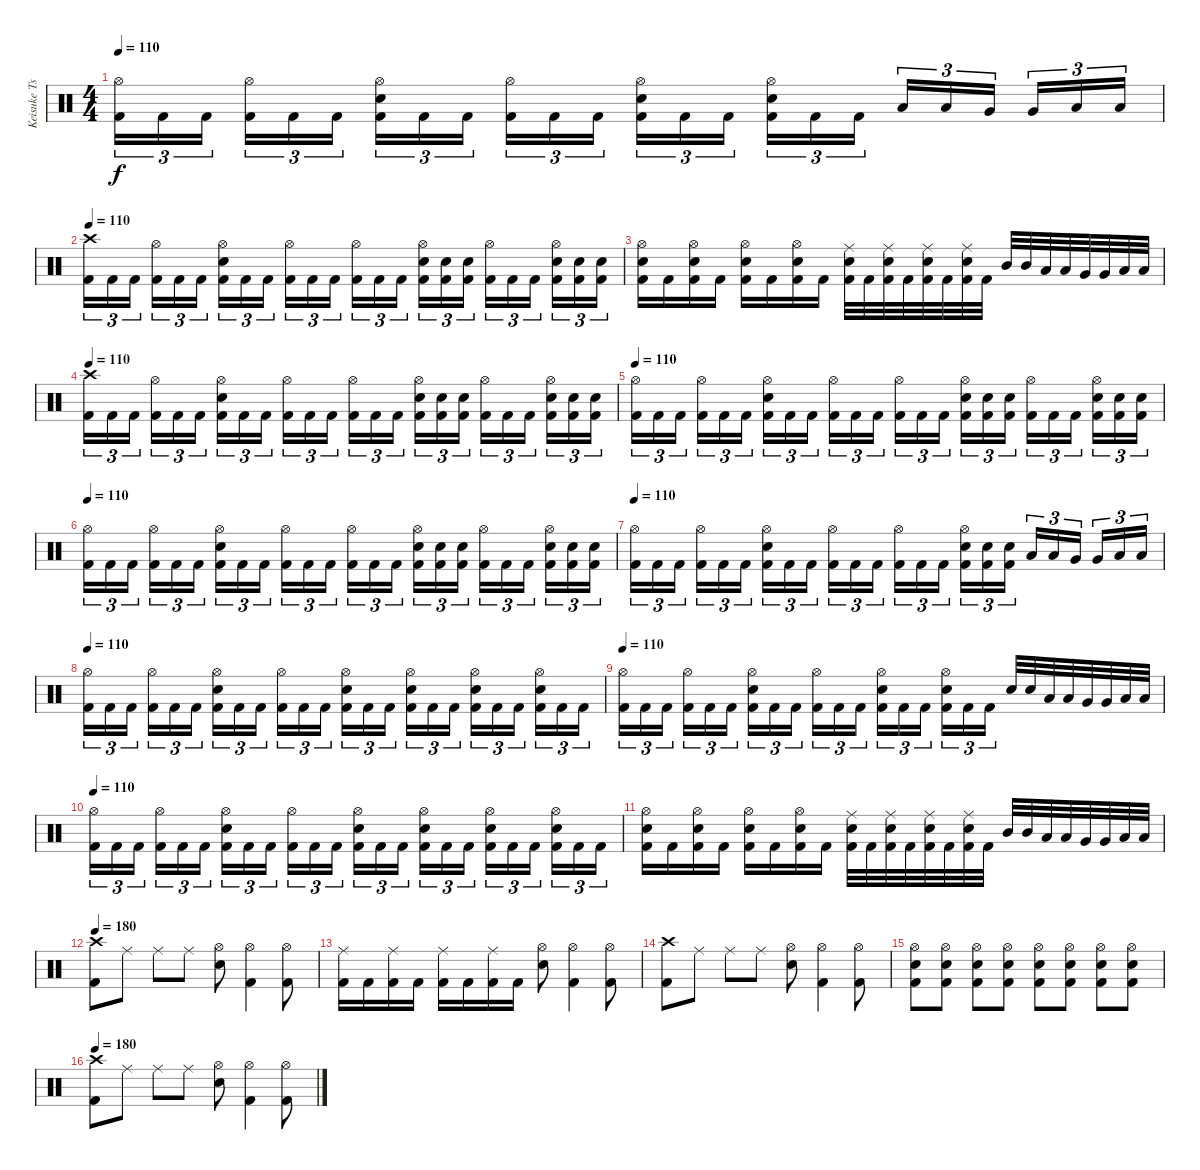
\track ("Keisuke Tsuboi" "Keisuke Ts") {instrument percussion}
\staff {score}
\articulation defaults
\ts (4 4)
\tempo 110
\clef neutral
\ks c
("Hi-Hat (open)" "Kick (hit) 2").16{tu (3 2) dy f volume 15} "Kick (hit) 2".16{tu (3 2)} "Kick (hit) 2".16{tu (3 2)} ("Hi-Hat (open)" "Kick (hit) 2").16{tu (3 2)} "Kick (hit) 2".16{tu (3 2)} "Kick (hit) 2".16{tu (3 2)} ("Hi-Hat (open)" "Electric Snare (hit)" "Kick (hit) 2").16{tu (3 2)} "Kick (hit) 2".16{tu (3 2)} "Kick (hit) 2".16{tu (3 2)} ("Hi-Hat (open)" "Kick (hit) 2").16{tu (3 2)} "Kick (hit) 2".16{tu (3 2)} "Kick (hit) 2".16{tu (3 2)} ("Hi-Hat (open)" "Electric Snare (hit)" "Kick (hit) 2").16{tu (3 2)} "Kick (hit) 2".16{tu (3 2)} "Kick (hit) 2".16{tu (3 2)} ("Hi-Hat (open)" "Electric Snare (hit)" "Kick (hit) 2").16{tu (3 2)} "Kick (hit) 2".16{tu (3 2)} "Kick (hit) 2".16{tu (3 2)} "Low Tom (hit)".16{tu (3 2)} "Low Tom (hit)".16{tu (3 2)} "Very Low Tom (hit)".16{tu (3 2)} "Very Low Tom (hit)".16{tu (3 2)} "Low Floor Tom (hit)".16{tu (3 2)} "Low Floor Tom (hit)".16{tu (3 2)} |
\tempo 110
("Crash high (hit)" "Kick (hit) 2").16{tu (3 2) volume 15} "Kick (hit) 2".16{tu (3 2)} "Kick (hit) 2".16{tu (3 2)} ("Hi-Hat (open)" "Kick (hit) 2").16{tu (3 2)} "Kick (hit) 2".16{tu (3 2)} "Kick (hit) 2".16{tu (3 2)} ("Hi-Hat (open)" "Electric Snare (hit)" "Kick (hit) 2").16{tu (3 2)} "Kick (hit) 2".16{tu (3 2)} "Kick (hit) 2".16{tu (3 2)} ("Hi-Hat (open)" "Kick (hit) 2").16{tu (3 2)} "Kick (hit) 2".16{tu (3 2)} "Kick (hit) 2".16{tu (3 2)} ("Hi-Hat (open)" "Kick (hit) 2").16{tu (3 2)} "Kick (hit) 2".16{tu (3 2)} "Kick (hit) 2".16{tu (3 2)} ("Hi-Hat (open)" "Electric Snare (hit)" "Kick (hit) 2").16{tu (3 2)} ("Electric Snare (hit)" "Kick (hit) 2").16{tu (3 2)} ("Electric Snare (hit)" "Kick (hit) 2").16{tu (3 2)} ("Hi-Hat (open)" "Kick (hit) 2").16{tu (3 2)} "Kick (hit) 2".16{tu (3 2)} "Kick (hit) 2".16{tu (3 2)} ("Hi-Hat (open)" "Electric Snare (hit)" "Kick (hit) 2").16{tu (3 2)} ("Electric Snare (hit)" "Kick (hit) 2").16{tu (3 2)} ("Electric Snare (hit)" "Kick (hit) 2").16{tu (3 2)} |
("Hi-Hat (open)" "Electric Snare (hit)" "Kick (hit) 2").16 "Kick (hit) 2".16 ("Hi-Hat (open)" "Electric Snare (hit)" "Kick (hit) 2").16 "Kick (hit) 2".16 ("Hi-Hat (open)" "Electric Snare (hit)" "Kick (hit) 2").16 "Kick (hit) 2".16 ("Hi-Hat (open)" "Electric Snare (hit)" "Kick (hit) 2").16 "Kick (hit) 2".16 ("Ride (middle)" "Electric Snare (hit)" "Kick (hit) 2").32 "Kick (hit) 2".32 ("Ride (middle)" "Electric Snare (hit)" "Kick (hit) 2").32 "Kick (hit) 2".32 ("Ride (middle)" "Electric Snare (hit)" "Kick (hit) 2").32 "Kick (hit) 2".32 ("Ride (middle)" "Electric Snare (hit)" "Kick (hit) 2").32 "Kick (hit) 2".32 "Mid Tom (hit)".32 "Mid Tom (hit)".32 "Low Tom (hit)".32 "Low Tom (hit)".32 "Very Low Tom (hit)".32 "Very Low Tom (hit)".32 "Low Floor Tom (hit)".32 "Low Floor Tom (hit)".32 |
\tempo 110
("Crash high (hit)" "Kick (hit) 2").16{tu (3 2) volume 15} "Kick (hit) 2".16{tu (3 2)} "Kick (hit) 2".16{tu (3 2)} ("Hi-Hat (open)" "Kick (hit) 2").16{tu (3 2)} "Kick (hit) 2".16{tu (3 2)} "Kick (hit) 2".16{tu (3 2)} ("Hi-Hat (open)" "Electric Snare (hit)" "Kick (hit) 2").16{tu (3 2)} "Kick (hit) 2".16{tu (3 2)} "Kick (hit) 2".16{tu (3 2)} ("Hi-Hat (open)" "Kick (hit) 2").16{tu (3 2)} "Kick (hit) 2".16{tu (3 2)} "Kick (hit) 2".16{tu (3 2)} ("Hi-Hat (open)" "Kick (hit) 2").16{tu (3 2)} "Kick (hit) 2".16{tu (3 2)} "Kick (hit) 2".16{tu (3 2)} ("Hi-Hat (open)" "Electric Snare (hit)" "Kick (hit) 2").16{tu (3 2)} ("Electric Snare (hit)" "Kick (hit) 2").16{tu (3 2)} ("Electric Snare (hit)" "Kick (hit) 2").16{tu (3 2)} ("Hi-Hat (open)" "Kick (hit) 2").16{tu (3 2)} "Kick (hit) 2".16{tu (3 2)} "Kick (hit) 2".16{tu (3 2)} ("Hi-Hat (open)" "Electric Snare (hit)" "Kick (hit) 2").16{tu (3 2)} ("Electric Snare (hit)" "Kick (hit) 2").16{tu (3 2)} ("Electric Snare (hit)" "Kick (hit) 2").16{tu (3 2)} |
\tempo 110
("Hi-Hat (open)" "Kick (hit) 2").16{tu (3 2) volume 15} "Kick (hit) 2".16{tu (3 2)} "Kick (hit) 2".16{tu (3 2)} ("Hi-Hat (open)" "Kick (hit) 2").16{tu (3 2)} "Kick (hit) 2".16{tu (3 2)} "Kick (hit) 2".16{tu (3 2)} ("Hi-Hat (open)" "Electric Snare (hit)" "Kick (hit) 2").16{tu (3 2)} "Kick (hit) 2".16{tu (3 2)} "Kick (hit) 2".16{tu (3 2)} ("Hi-Hat (open)" "Kick (hit) 2").16{tu (3 2)} "Kick (hit) 2".16{tu (3 2)} "Kick (hit) 2".16{tu (3 2)} ("Hi-Hat (open)" "Kick (hit) 2").16{tu (3 2)} "Kick (hit) 2".16{tu (3 2)} "Kick (hit) 2".16{tu (3 2)} ("Hi-Hat (open)" "Electric Snare (hit)" "Kick (hit) 2").16{tu (3 2)} ("Electric Snare (hit)" "Kick (hit) 2").16{tu (3 2)} ("Electric Snare (hit)" "Kick (hit) 2").16{tu (3 2)} ("Hi-Hat (open)" "Kick (hit) 2").16{tu (3 2)} "Kick (hit) 2".16{tu (3 2)} "Kick (hit) 2".16{tu (3 2)} ("Hi-Hat (open)" "Electric Snare (hit)" "Kick (hit) 2").16{tu (3 2)} ("Electric Snare (hit)" "Kick (hit) 2").16{tu (3 2)} ("Electric Snare (hit)" "Kick (hit) 2").16{tu (3 2)} |
\tempo 110
("Hi-Hat (open)" "Kick (hit) 2").16{tu (3 2) volume 15} "Kick (hit) 2".16{tu (3 2)} "Kick (hit) 2".16{tu (3 2)} ("Hi-Hat (open)" "Kick (hit) 2").16{tu (3 2)} "Kick (hit) 2".16{tu (3 2)} "Kick (hit) 2".16{tu (3 2)} ("Hi-Hat (open)" "Electric Snare (hit)" "Kick (hit) 2").16{tu (3 2)} "Kick (hit) 2".16{tu (3 2)} "Kick (hit) 2".16{tu (3 2)} ("Hi-Hat (open)" "Kick (hit) 2").16{tu (3 2)} "Kick (hit) 2".16{tu (3 2)} "Kick (hit) 2".16{tu (3 2)} ("Hi-Hat (open)" "Kick (hit) 2").16{tu (3 2)} "Kick (hit) 2".16{tu (3 2)} "Kick (hit) 2".16{tu (3 2)} ("Hi-Hat (open)" "Electric Snare (hit)" "Kick (hit) 2").16{tu (3 2)} ("Electric Snare (hit)" "Kick (hit) 2").16{tu (3 2)} ("Electric Snare (hit)" "Kick (hit) 2").16{tu (3 2)} ("Hi-Hat (open)" "Kick (hit) 2").16{tu (3 2)} "Kick (hit) 2".16{tu (3 2)} "Kick (hit) 2".16{tu (3 2)} ("Hi-Hat (open)" "Electric Snare (hit)" "Kick (hit) 2").16{tu (3 2)} ("Electric Snare (hit)" "Kick (hit) 2").16{tu (3 2)} ("Electric Snare (hit)" "Kick (hit) 2").16{tu (3 2)} |
\tempo 110
("Hi-Hat (open)" "Kick (hit) 2").16{tu (3 2) volume 15} "Kick (hit) 2".16{tu (3 2)} "Kick (hit) 2".16{tu (3 2)} ("Hi-Hat (open)" "Kick (hit) 2").16{tu (3 2)} "Kick (hit) 2".16{tu (3 2)} "Kick (hit) 2".16{tu (3 2)} ("Hi-Hat (open)" "Electric Snare (hit)" "Kick (hit) 2").16{tu (3 2)} "Kick (hit) 2".16{tu (3 2)} "Kick (hit) 2".16{tu (3 2)} ("Hi-Hat (open)" "Kick (hit) 2").16{tu (3 2)} "Kick (hit) 2".16{tu (3 2)} "Kick (hit) 2".16{tu (3 2)} ("Hi-Hat (open)" "Kick (hit) 2").16{tu (3 2)} "Kick (hit) 2".16{tu (3 2)} "Kick (hit) 2".16{tu (3 2)} ("Hi-Hat (open)" "Electric Snare (hit)" "Kick (hit) 2").16{tu (3 2)} ("Electric Snare (hit)" "Kick (hit) 2").16{tu (3 2)} ("Electric Snare (hit)" "Kick (hit) 2").16{tu (3 2)} "Low Tom (hit)".16{tu (3 2)} "Low Tom (hit)".16{tu (3 2)} "Very Low Tom (hit)".16{tu (3 2)} "Very Low Tom (hit)".16{tu (3 2)} "Low Floor Tom (hit)".16{tu (3 2)} "Low Floor Tom (hit)".16{tu (3 2)} |
\tempo 110
("Hi-Hat (open)" "Kick (hit) 2").16{tu (3 2) volume 15} "Kick (hit) 2".16{tu (3 2)} "Kick (hit) 2".16{tu (3 2)} ("Hi-Hat (open)" "Kick (hit) 2").16{tu (3 2)} "Kick (hit) 2".16{tu (3 2)} "Kick (hit) 2".16{tu (3 2)} ("Hi-Hat (open)" "Electric Snare (hit)" "Kick (hit) 2").16{tu (3 2)} "Kick (hit) 2".16{tu (3 2)} "Kick (hit) 2".16{tu (3 2)} ("Hi-Hat (open)" "Kick (hit) 2").16{tu (3 2)} "Kick (hit) 2".16{tu (3 2)} "Kick (hit) 2".16{tu (3 2)} ("Hi-Hat (open)" "Electric Snare (hit)" "Kick (hit) 2").16{tu (3 2)} "Kick (hit) 2".16{tu (3 2)} "Kick (hit) 2".16{tu (3 2)} ("Hi-Hat (open)" "Electric Snare (hit)" "Kick (hit) 2").16{tu (3 2)} "Kick (hit) 2".16{tu (3 2)} "Kick (hit) 2".16{tu (3 2)} ("Hi-Hat (open)" "Electric Snare (hit)" "Kick (hit) 2").16{tu (3 2)} "Kick (hit) 2".16{tu (3 2)} "Kick (hit) 2".16{tu (3 2)} ("Hi-Hat (open)" "Electric Snare (hit)" "Kick (hit) 2").16{tu (3 2)} "Kick (hit) 2".16{tu (3 2)} "Kick (hit) 2".16{tu (3 2)} |
\tempo 110
("Hi-Hat (open)" "Kick (hit) 2").16{tu (3 2) volume 15} "Kick (hit) 2".16{tu (3 2)} "Kick (hit) 2".16{tu (3 2)} ("Hi-Hat (open)" "Kick (hit) 2").16{tu (3 2)} "Kick (hit) 2".16{tu (3 2)} "Kick (hit) 2".16{tu (3 2)} ("Hi-Hat (open)" "Electric Snare (hit)" "Kick (hit) 2").16{tu (3 2)} "Kick (hit) 2".16{tu (3 2)} "Kick (hit) 2".16{tu (3 2)} ("Hi-Hat (open)" "Kick (hit) 2").16{tu (3 2)} "Kick (hit) 2".16{tu (3 2)} "Kick (hit) 2".16{tu (3 2)} ("Hi-Hat (open)" "Electric Snare (hit)" "Kick (hit) 2").16{tu (3 2)} "Kick (hit) 2".16{tu (3 2)} "Kick (hit) 2".16{tu (3 2)} ("Hi-Hat (open)" "Electric Snare (hit)" "Kick (hit) 2").16{tu (3 2)} "Kick (hit) 2".16{tu (3 2)} "Kick (hit) 2".16{tu (3 2)} "Electric Snare (hit)".32 "Electric Snare (hit)".32 "Low Tom (hit)".32 "Low Tom (hit)".32 "Very Low Tom (hit)".32 "Very Low Tom (hit)".32 "Low Floor Tom (hit)".32 "Low Floor Tom (hit)".32 |
\tempo 110
("Hi-Hat (open)" "Kick (hit) 2").16{tu (3 2) volume 15} "Kick (hit) 2".16{tu (3 2)} "Kick (hit) 2".16{tu (3 2)} ("Hi-Hat (open)" "Kick (hit) 2").16{tu (3 2)} "Kick (hit) 2".16{tu (3 2)} "Kick (hit) 2".16{tu (3 2)} ("Hi-Hat (open)" "Electric Snare (hit)" "Kick (hit) 2").16{tu (3 2)} "Kick (hit) 2".16{tu (3 2)} "Kick (hit) 2".16{tu (3 2)} ("Hi-Hat (open)" "Kick (hit) 2").16{tu (3 2)} "Kick (hit) 2".16{tu (3 2)} "Kick (hit) 2".16{tu (3 2)} ("Hi-Hat (open)" "Electric Snare (hit)" "Kick (hit) 2").16{tu (3 2)} "Kick (hit) 2".16{tu (3 2)} "Kick (hit) 2".16{tu (3 2)} ("Hi-Hat (open)" "Electric Snare (hit)" "Kick (hit) 2").16{tu (3 2)} "Kick (hit) 2".16{tu (3 2)} "Kick (hit) 2".16{tu (3 2)} ("Hi-Hat (open)" "Electric Snare (hit)" "Kick (hit) 2").16{tu (3 2)} "Kick (hit) 2".16{tu (3 2)} "Kick (hit) 2".16{tu (3 2)} ("Hi-Hat (open)" "Electric Snare (hit)" "Kick (hit) 2").16{tu (3 2)} "Kick (hit) 2".16{tu (3 2)} "Kick (hit) 2".16{tu (3 2)} |
("Hi-Hat (open)" "Electric Snare (hit)" "Kick (hit) 2").16 "Kick (hit) 2".16 ("Hi-Hat (open)" "Electric Snare (hit)" "Kick (hit) 2").16 "Kick (hit) 2".16 ("Hi-Hat (open)" "Electric Snare (hit)" "Kick (hit) 2").16 "Kick (hit) 2".16 ("Hi-Hat (open)" "Electric Snare (hit)" "Kick (hit) 2").16 "Kick (hit) 2".16 ("Ride (middle)" "Electric Snare (hit)" "Kick (hit) 2").32 "Kick (hit) 2".32 ("Ride (middle)" "Electric Snare (hit)" "Kick (hit) 2").32 "Kick (hit) 2".32 ("Ride (middle)" "Electric Snare (hit)" "Kick (hit) 2").32 "Kick (hit) 2".32 ("Ride (middle)" "Electric Snare (hit)" "Kick (hit) 2").32 "Kick (hit) 2".32 "Mid Tom (hit)".32 "Mid Tom (hit)".32 "Low Tom (hit)".32 "Low Tom (hit)".32 "Very Low Tom (hit)".32 "Very Low Tom (hit)".32 "Low Floor Tom (hit)".32 "Low Floor Tom (hit)".32 |
\tempo 180
("Crash high (hit)" "Kick (hit) 2").8{volume 15} "Ride (middle)".8 "Ride (middle)".8 "Ride (middle)".8 ("Hi-Hat (open)" "Electric Snare (hit)").8 ("Hi-Hat (open)" "Kick (hit) 2").4 ("Hi-Hat (open)" "Kick (hit) 2").8 |
("Ride (middle)" "Kick (hit) 2").16 "Kick (hit) 2".16 ("Ride (middle)" "Kick (hit) 2").16 "Kick (hit) 2".16 ("Ride (middle)" "Kick (hit) 2").16 "Kick (hit) 2".16 ("Ride (middle)" "Kick (hit) 2").16 "Kick (hit) 2".16 ("Hi-Hat (open)" "Electric Snare (hit)").8 ("Hi-Hat (open)" "Kick (hit) 2").4 ("Hi-Hat (open)" "Kick (hit) 2").8 |
("Crash high (hit)" "Kick (hit) 2").8 "Ride (middle)".8 "Ride (middle)".8 "Ride (middle)".8 ("Hi-Hat (open)" "Electric Snare (hit)").8 ("Hi-Hat (open)" "Kick (hit) 2").4 ("Hi-Hat (open)" "Kick (hit) 2").8 |
("Hi-Hat (open)" "Electric Snare (hit)" "Kick (hit) 2").8 ("Hi-Hat (open)" "Electric Snare (hit)" "Kick (hit) 2").8 ("Hi-Hat (open)" "Electric Snare (hit)" "Kick (hit) 2").8 ("Hi-Hat (open)" "Electric Snare (hit)" "Kick (hit) 2").8 ("Hi-Hat (open)" "Electric Snare (hit)" "Kick (hit) 2").8 ("Hi-Hat (open)" "Electric Snare (hit)" "Kick (hit) 2").8 ("Hi-Hat (open)" "Electric Snare (hit)" "Kick (hit) 2").8 ("Hi-Hat (open)" "Electric Snare (hit)" "Kick (hit) 2").8 |
\tempo 180
("Crash high (hit)" "Kick (hit) 2").8 "Ride (middle)".8 "Ride (middle)".8 "Ride (middle)".8 ("Hi-Hat (open)" "Electric Snare (hit)").8 ("Hi-Hat (open)" "Kick (hit) 2").4 ("Hi-Hat (open)" "Kick (hit) 2").8
